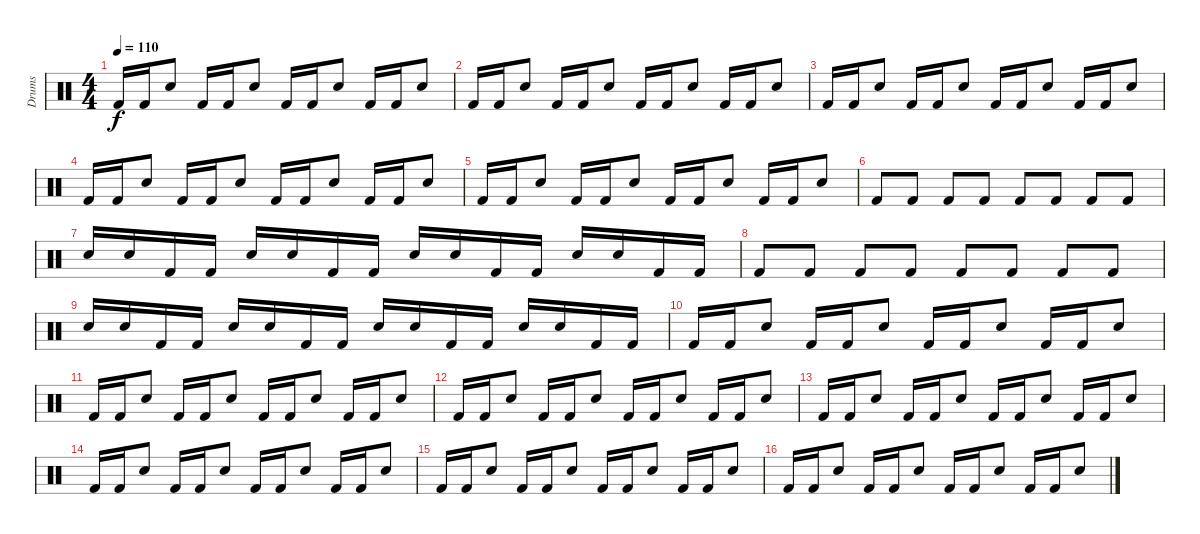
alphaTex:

\track ("Drums" "Drums") {instrument percussion}
\staff {score}
\articulation defaults
\ts (4 4)
\tempo 110
\clef neutral
\ks c "Kick (hit) 2".16{dy f} "Kick (hit) 2".16 "Snare (hit) 2".8 "Kick (hit) 2".16 "Kick (hit) 2".16 "Snare (hit) 2".8 "Kick (hit) 2".16 "Kick (hit) 2".16 "Snare (hit) 2".8 "Kick (hit) 2".16 "Kick (hit) 2".16 "Snare (hit) 2".8
|
"Kick (hit) 2".16 "Kick (hit) 2".16 "Snare (hit) 2".8 "Kick (hit) 2".16 "Kick (hit) 2".16 "Snare (hit) 2".8 "Kick (hit) 2".16 "Kick (hit) 2".16 "Snare (hit) 2".8 "Kick (hit) 2".16 "Kick (hit) 2".16 "Snare (hit) 2".8 |
"Kick (hit) 2".16 "Kick (hit) 2".16 "Snare (hit) 2".8 "Kick (hit) 2".16 "Kick (hit) 2".16 "Snare (hit) 2".8 "Kick (hit) 2".16 "Kick (hit) 2".16 "Snare (hit) 2".8 "Kick (hit) 2".16 "Kick (hit) 2".16 "Snare (hit) 2".8 |
"Kick (hit) 2".16 "Kick (hit) 2".16 "Snare (hit) 2".8 "Kick (hit) 2".16 "Kick (hit) 2".16 "Snare (hit) 2".8 "Kick (hit) 2".16 "Kick (hit) 2".16 "Snare (hit) 2".8 "Kick (hit) 2".16 "Kick (hit) 2".16 "Snare (hit) 2".8 |
"Kick (hit) 2".16 "Kick (hit) 2".16 "Snare (hit) 2".8 "Kick (hit) 2".16 "Kick (hit) 2".16 "Snare (hit) 2".8 "Kick (hit) 2".16 "Kick (hit) 2".16 "Snare (hit) 2".8 "Kick (hit) 2".16 "Kick (hit) 2".16 "Snare (hit) 2".8 |
"Kick (hit) 2".8 "Kick (hit) 2".8 "Kick (hit) 2".8 "Kick (hit) 2".8 "Kick (hit) 2".8 "Kick (hit) 2".8 "Kick (hit) 2".8 "Kick (hit) 2".8 |
"Snare (hit) 2".16 "Snare (hit) 2".16 "Kick (hit) 2".16 "Kick (hit) 2".16 "Snare (hit) 2".16 "Snare (hit) 2".16 "Kick (hit) 2".16 "Kick (hit) 2".16 "Snare (hit) 2".16 "Snare (hit) 2".16 "Kick (hit) 2".16 "Kick (hit) 2".16 "Snare (hit) 2".16 "Snare (hit) 2".16 "Kick (hit) 2".16 "Kick (hit) 2".16 |
"Kick (hit) 2".8 "Kick (hit) 2".8 "Kick (hit) 2".8 "Kick (hit) 2".8 "Kick (hit) 2".8 "Kick (hit) 2".8 "Kick (hit) 2".8 "Kick (hit) 2".8 |
"Snare (hit) 2".16 "Snare (hit) 2".16 "Kick (hit) 2".16 "Kick (hit) 2".16 "Snare (hit) 2".16 "Snare (hit) 2".16 "Kick (hit) 2".16 "Kick (hit) 2".16 "Snare (hit) 2".16 "Snare (hit) 2".16 "Kick (hit) 2".16 "Kick (hit) 2".16 "Snare (hit) 2".16 "Snare (hit) 2".16 "Kick (hit) 2".16 "Kick (hit) 2".16 |
"Kick (hit) 2".16 "Kick (hit) 2".16 "Snare (hit) 2".8 "Kick (hit) 2".16 "Kick (hit) 2".16 "Snare (hit) 2".8 "Kick (hit) 2".16 "Kick (hit) 2".16 "Snare (hit) 2".8 "Kick (hit) 2".16 "Kick (hit) 2".16 "Snare (hit) 2".8 |
"Kick (hit) 2".16 "Kick (hit) 2".16 "Snare (hit) 2".8 "Kick (hit) 2".16 "Kick (hit) 2".16 "Snare (hit) 2".8 "Kick (hit) 2".16 "Kick (hit) 2".16 "Snare (hit) 2".8 "Kick (hit) 2".16 "Kick (hit) 2".16 "Snare (hit) 2".8 |
"Kick (hit) 2".16 "Kick (hit) 2".16 "Snare (hit) 2".8 "Kick (hit) 2".16 "Kick (hit) 2".16 "Snare (hit) 2".8 "Kick (hit) 2".16 "Kick (hit) 2".16 "Snare (hit) 2".8 "Kick (hit) 2".16 "Kick (hit) 2".16 "Snare (hit) 2".8 |
"Kick (hit) 2".16 "Kick (hit) 2".16 "Snare (hit) 2".8 "Kick (hit) 2".16 "Kick (hit) 2".16 "Snare (hit) 2".8 "Kick (hit) 2".16 "Kick (hit) 2".16 "Snare (hit) 2".8 "Kick (hit) 2".16 "Kick (hit) 2".16 "Snare (hit) 2".8 |
"Kick (hit) 2".16 "Kick (hit) 2".16 "Snare (hit) 2".8 "Kick (hit) 2".16 "Kick (hit) 2".16 "Snare (hit) 2".8 "Kick (hit) 2".16 "Kick (hit) 2".16 "Snare (hit) 2".8 "Kick (hit) 2".16 "Kick (hit) 2".16 "Snare (hit) 2".8 |
"Kick (hit) 2".16 "Kick (hit) 2".16 "Snare (hit) 2".8 "Kick (hit) 2".16 "Kick (hit) 2".16 "Snare (hit) 2".8 "Kick (hit) 2".16 "Kick (hit) 2".16 "Snare (hit) 2".8 "Kick (hit) 2".16 "Kick (hit) 2".16 "Snare (hit) 2".8 |
"Kick (hit) 2".16 "Kick (hit) 2".16 "Snare (hit) 2".8 "Kick (hit) 2".16 "Kick (hit) 2".16 "Snare (hit) 2".8 "Kick (hit) 2".16 "Kick (hit) 2".16 "Snare (hit) 2".8 "Kick (hit) 2".16 "Kick (hit) 2".16 "Snare (hit) 2".8
